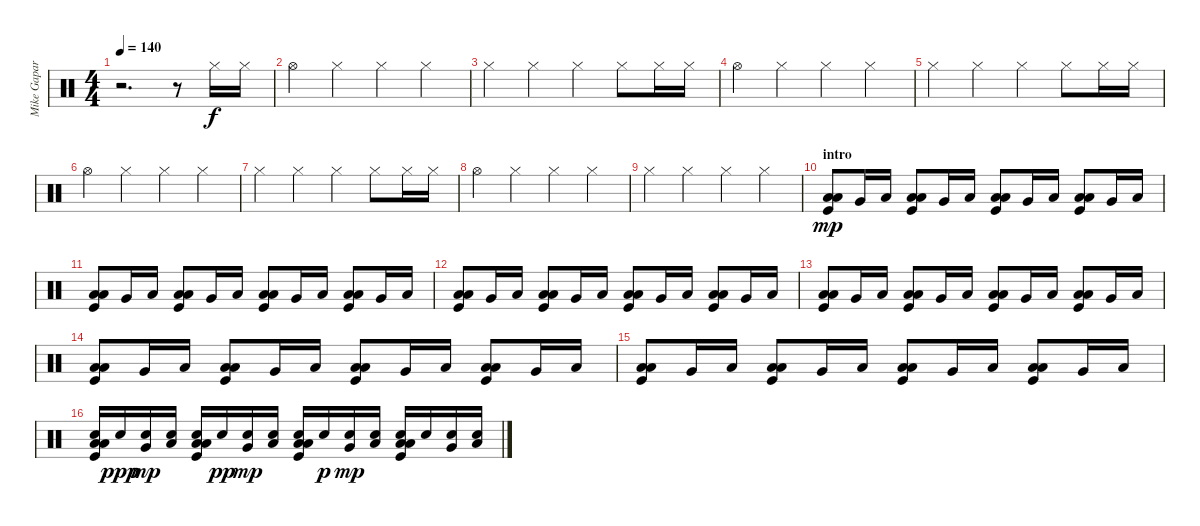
\track ("Mike Gapar" "Mike Gapar") {instrument percussion}
\staff {score}
\articulation defaults
\ts (4 4)
\tempo 140
\clef neutral
\ks c
r.2{d dy f} r.8 "Hi-Hat (closed)".16 "Hi-Hat (closed)".16 |
"Hi-Hat (open)".4 "Hi-Hat (closed)".4 "Hi-Hat (closed)".4 "Hi-Hat (closed)".4 |
"Hi-Hat (closed)".4 "Hi-Hat (closed)".4 "Hi-Hat (closed)".4 "Hi-Hat (closed)".8 "Hi-Hat (closed)".16 "Hi-Hat (closed)".16 |
"Hi-Hat (open)".4 "Hi-Hat (closed)".4 "Hi-Hat (closed)".4 "Hi-Hat (closed)".4 |
"Hi-Hat (closed)".4 "Hi-Hat (closed)".4 "Hi-Hat (closed)".4 "Hi-Hat (closed)".8 "Hi-Hat (closed)".16 "Hi-Hat (closed)".16 |
"Hi-Hat (open)".4 "Hi-Hat (closed)".4 "Hi-Hat (closed)".4 "Hi-Hat (closed)".4 |
"Hi-Hat (closed)".4 "Hi-Hat (closed)".4 "Hi-Hat (closed)".4 "Hi-Hat (closed)".8 "Hi-Hat (closed)".16 "Hi-Hat (closed)".16 |
"Hi-Hat (open)".4 "Hi-Hat (closed)".4 "Hi-Hat (closed)".4 "Hi-Hat (closed)".4 |
"Hi-Hat (closed)".4 "Hi-Hat (closed)".4 "Hi-Hat (closed)".4 "Hi-Hat (closed)".4 |
\section ("" "intro")
("Low Tom (hit)" "Low Floor Tom (hit)" "Kick (hit)").8{dy mp} "Very Low Tom (hit)".16 "Low Floor Tom (hit)".16 ("Low Tom (hit)" "Low Floor Tom (hit)" "Kick (hit)").8 "Very Low Tom (hit)".16 "Low Floor Tom (hit)".16 ("Low Tom (hit)" "Low Floor Tom (hit)" "Kick (hit)").8 "Very Low Tom (hit)".16 "Low Floor Tom (hit)".16 ("Low Tom (hit)" "Low Floor Tom (hit)" "Kick (hit)").8 "Very Low Tom (hit)".16 "Low Floor Tom (hit)".16 |
("Low Tom (hit)" "Low Floor Tom (hit)" "Kick (hit)").8 "Very Low Tom (hit)".16 "Low Floor Tom (hit)".16 ("Low Tom (hit)" "Low Floor Tom (hit)" "Kick (hit)").8 "Very Low Tom (hit)".16 "Low Floor Tom (hit)".16 ("Low Tom (hit)" "Low Floor Tom (hit)" "Kick (hit)").8 "Very Low Tom (hit)".16 "Low Floor Tom (hit)".16 ("Low Tom (hit)" "Low Floor Tom (hit)" "Kick (hit)").8 "Very Low Tom (hit)".16 "Low Floor Tom (hit)".16 |
("Low Tom (hit)" "Low Floor Tom (hit)" "Kick (hit)").8 "Very Low Tom (hit)".16 "Low Floor Tom (hit)".16 ("Low Tom (hit)" "Low Floor Tom (hit)" "Kick (hit)").8 "Very Low Tom (hit)".16 "Low Floor Tom (hit)".16 ("Low Tom (hit)" "Low Floor Tom (hit)" "Kick (hit)").8 "Very Low Tom (hit)".16 "Low Floor Tom (hit)".16 ("Low Tom (hit)" "Low Floor Tom (hit)" "Kick (hit)").8 "Very Low Tom (hit)".16 "Low Floor Tom (hit)".16 |
("Low Tom (hit)" "Low Floor Tom (hit)" "Kick (hit)").8 "Very Low Tom (hit)".16 "Low Floor Tom (hit)".16 ("Low Tom (hit)" "Low Floor Tom (hit)" "Kick (hit)").8 "Very Low Tom (hit)".16 "Low Floor Tom (hit)".16 ("Low Tom (hit)" "Low Floor Tom (hit)" "Kick (hit)").8 "Very Low Tom (hit)".16 "Low Floor Tom (hit)".16 ("Low Tom (hit)" "Low Floor Tom (hit)" "Kick (hit)").8 "Very Low Tom (hit)".16 "Low Floor Tom (hit)".16 |
("Low Tom (hit)" "Low Floor Tom (hit)" "Kick (hit)").8 "Very Low Tom (hit)".16 "Low Floor Tom (hit)".16 ("Low Tom (hit)" "Low Floor Tom (hit)" "Kick (hit)").8 "Very Low Tom (hit)".16 "Low Floor Tom (hit)".16 ("Low Tom (hit)" "Low Floor Tom (hit)" "Kick (hit)").8 "Very Low Tom (hit)".16 "Low Floor Tom (hit)".16 ("Low Tom (hit)" "Low Floor Tom (hit)" "Kick (hit)").8 "Very Low Tom (hit)".16 "Low Floor Tom (hit)".16 |
("Low Tom (hit)" "Low Floor Tom (hit)" "Kick (hit)").8 "Very Low Tom (hit)".16 "Low Floor Tom (hit)".16 ("Low Tom (hit)" "Low Floor Tom (hit)" "Kick (hit)").8 "Very Low Tom (hit)".16 "Low Floor Tom (hit)".16 ("Low Tom (hit)" "Low Floor Tom (hit)" "Kick (hit)").8 "Very Low Tom (hit)".16 "Low Floor Tom (hit)".16 ("Low Tom (hit)" "Low Floor Tom (hit)" "Kick (hit)").8 "Very Low Tom (hit)".16 "Low Floor Tom (hit)".16 |
("Low Tom (hit)" "Electric Snare (hit)" "Low Floor Tom (hit)" "Kick (hit)").16 "Electric Snare (hit)".16{dy ppp} ("Electric Snare (hit)" "Very Low Tom (hit)").16{dy mp} ("Electric Snare (hit)" "Low Floor Tom (hit)").16 ("Low Tom (hit)" "Electric Snare (hit)" "Low Floor Tom (hit)" "Kick (hit)").16 "Electric Snare (hit)".16{dy pp} ("Electric Snare (hit)" "Very Low Tom (hit)").16{dy mp} ("Electric Snare (hit)" "Low Floor Tom (hit)").16 ("Low Tom (hit)" "Electric Snare (hit)" "Low Floor Tom (hit)" "Kick (hit)").16 "Electric Snare (hit)".16{dy p} ("Electric Snare (hit)" "Very Low Tom (hit)").16{dy mp} ("Electric Snare (hit)" "Low Floor Tom (hit)").16 ("Low Tom (hit)" "Electric Snare (hit)" "Low Floor Tom (hit)" "Kick (hit)").16 "Electric Snare (hit)".16 ("Electric Snare (hit)" "Very Low Tom (hit)").16 ("Electric Snare (hit)" "Low Floor Tom (hit)").16
